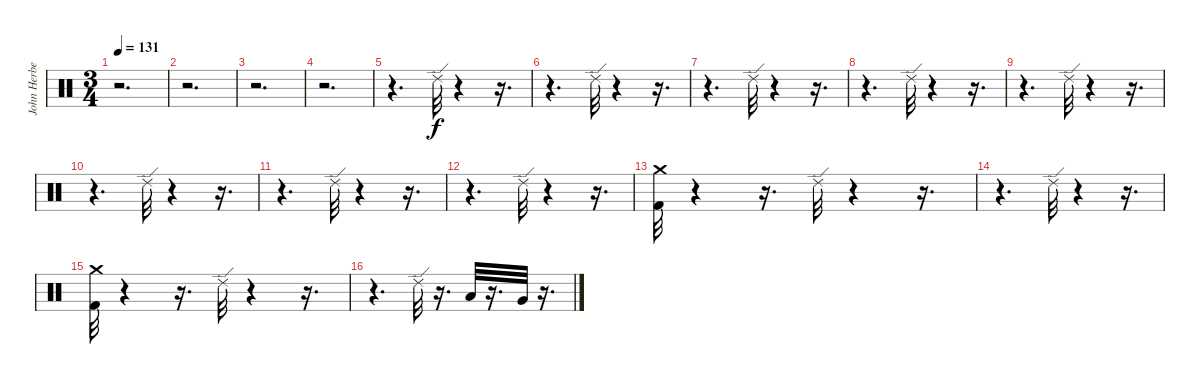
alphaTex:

\track ("John Herbert" "John Herbe") {instrument percussion}
\staff {score}
\articulation defaults
\ts (3 4)
\tempo 131
\clef neutral
\ks c
r.2{d dy f} |
r.2{d} |
r.2{d} |
r.2{d} |
r.4{d} "Ride (edge) 2".32 r.4 r.16{d} |
r.4{d} "Ride (edge) 2".32 r.4 r.16{d} |
r.4{d} "Ride (edge) 2".32 r.4 r.16{d} |
r.4{d} "Ride (edge) 2".32 r.4 r.16{d} |
r.4{d} "Ride (edge) 2".32 r.4 r.16{d} |
r.4{d} "Ride (edge) 2".32 r.4 r.16{d} |
r.4{d} "Ride (edge) 2".32 r.4 r.16{d} |
r.4{d} "Ride (edge) 2".32 r.4 r.16{d} |
("Kick (hit) 2" "Crash medium (hit)").32 r.4 r.16{d} "Ride (edge) 2".32 r.4 r.16{d} |
r.4{d} "Ride (edge) 2".32 r.4 r.16{d} |
("Kick (hit) 2" "Crash medium (hit)").32 r.4 r.16{d} "Ride (edge) 2".32 r.4 r.16{d} |
r.4{d} "Ride (edge) 2".32 r.16{d} "Low Tom (hit)".32 r.16{d} "Very Low Tom (hit)".32 r.16{d}
